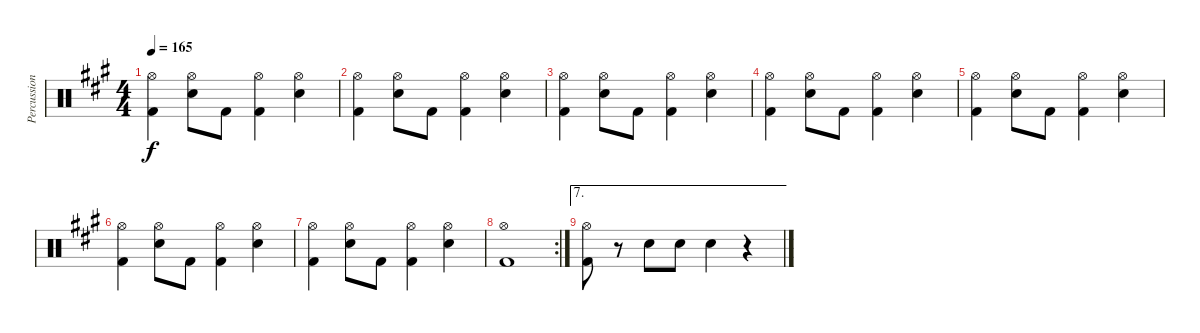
\track ("Percussion" "Percussion") {instrument percussion}
\staff {score}
\articulation defaults
\ts (4 4)
\tempo 165
\clef neutral
\ks a
("Hi-Hat (open)" "Kick (hit) 2").4{dy f} ("Hi-Hat (open)" "Snare (hit) 2").8 "Kick (hit) 2".8 ("Hi-Hat (open)" "Kick (hit) 2").4 ("Hi-Hat (open)" "Snare (hit) 2").4 |
("Hi-Hat (open)" "Kick (hit) 2").4 ("Hi-Hat (open)" "Snare (hit) 2").8 "Kick (hit) 2".8 ("Hi-Hat (open)" "Kick (hit) 2").4 ("Hi-Hat (open)" "Snare (hit) 2").4 |
("Hi-Hat (open)" "Kick (hit) 2").4 ("Hi-Hat (open)" "Snare (hit) 2").8 "Kick (hit) 2".8 ("Hi-Hat (open)" "Kick (hit) 2").4 ("Hi-Hat (open)" "Snare (hit) 2").4 |
("Hi-Hat (open)" "Kick (hit) 2").4 ("Hi-Hat (open)" "Snare (hit) 2").8 "Kick (hit) 2".8 ("Hi-Hat (open)" "Kick (hit) 2").4 ("Hi-Hat (open)" "Snare (hit) 2").4 |
("Hi-Hat (open)" "Kick (hit) 2").4 ("Hi-Hat (open)" "Snare (hit) 2").8 "Kick (hit) 2".8 ("Hi-Hat (open)" "Kick (hit) 2").4 ("Hi-Hat (open)" "Snare (hit) 2").4 |
("Hi-Hat (open)" "Kick (hit) 2").4 ("Hi-Hat (open)" "Snare (hit) 2").8 "Kick (hit) 2".8 ("Hi-Hat (open)" "Kick (hit) 2").4 ("Hi-Hat (open)" "Snare (hit) 2").4 |
("Hi-Hat (open)" "Kick (hit) 2").4 ("Hi-Hat (open)" "Snare (hit) 2").8 "Kick (hit) 2".8 ("Hi-Hat (open)" "Kick (hit) 2").4 ("Hi-Hat (open)" "Snare (hit) 2").4 |
\rc 2
("Hi-Hat (open)" "Kick (hit) 2").1 |
\ae 7
("Hi-Hat (open)" "Kick (hit) 2").8 r.8 "Snare (hit) 2".8 "Snare (hit) 2".8 "Snare (hit) 2".4 r.4
